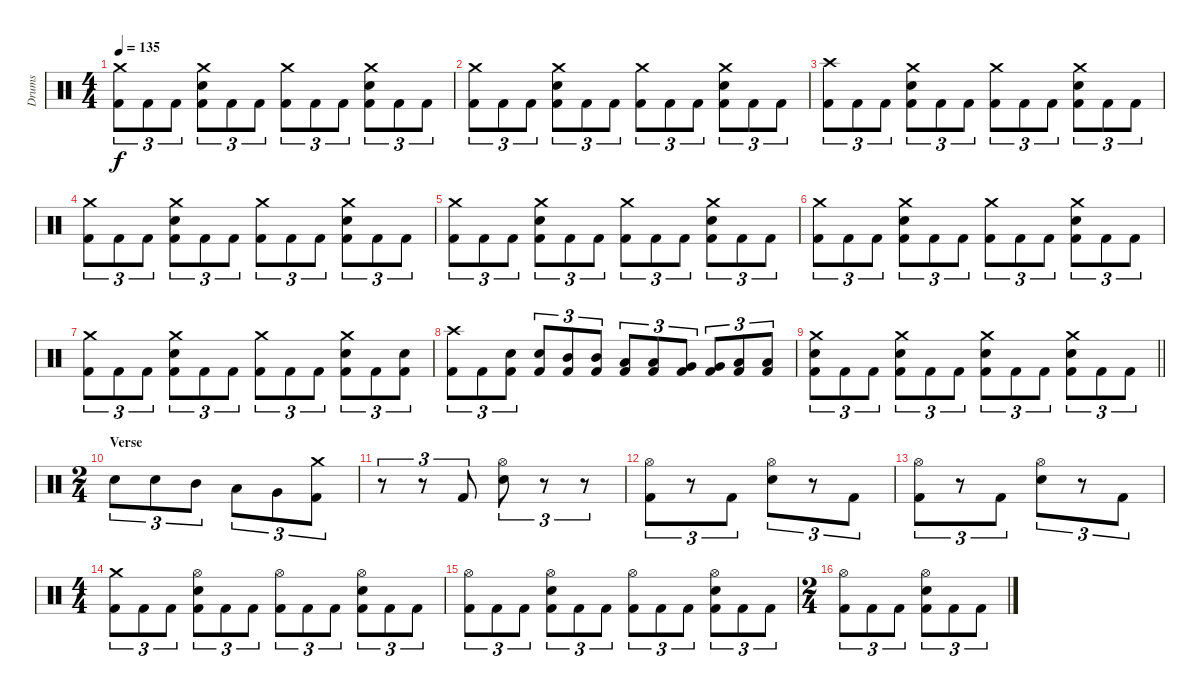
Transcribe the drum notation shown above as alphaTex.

\track ("Drums" "Drums") {instrument percussion}
\staff {score}
\articulation defaults
\ts (4 4)
\tempo 135
\clef neutral
\ks c
("Crash medium (hit)" "Kick (hit) 2").8{tu (3 2) dy f} "Kick (hit) 2".8{tu (3 2)} "Kick (hit) 2".8{tu (3 2)} ("Crash medium (hit)" "Electric Snare (hit)" "Kick (hit) 2").8{tu (3 2)} "Kick (hit) 2".8{tu (3 2)} "Kick (hit) 2".8{tu (3 2)} ("Crash medium (hit)" "Kick (hit) 2").8{tu (3 2)} "Kick (hit) 2".8{tu (3 2)} "Kick (hit) 2".8{tu (3 2)} ("Crash medium (hit)" "Electric Snare (hit)" "Kick (hit) 2").8{tu (3 2)} "Kick (hit) 2".8{tu (3 2)} "Kick (hit) 2".8{tu (3 2)} |
("Crash medium (hit)" "Kick (hit) 2").8{tu (3 2)} "Kick (hit) 2".8{tu (3 2)} "Kick (hit) 2".8{tu (3 2)} ("Crash medium (hit)" "Electric Snare (hit)" "Kick (hit) 2").8{tu (3 2)} "Kick (hit) 2".8{tu (3 2)} "Kick (hit) 2".8{tu (3 2)} ("Crash medium (hit)" "Kick (hit) 2").8{tu (3 2)} "Kick (hit) 2".8{tu (3 2)} "Kick (hit) 2".8{tu (3 2)} ("Crash medium (hit)" "Electric Snare (hit)" "Kick (hit) 2").8{tu (3 2)} "Kick (hit) 2".8{tu (3 2)} "Kick (hit) 2".8{tu (3 2)} |
("Crash high (hit)" "Kick (hit) 2").8{tu (3 2)} "Kick (hit) 2".8{tu (3 2)} "Kick (hit) 2".8{tu (3 2)} ("Crash medium (hit)" "Electric Snare (hit)" "Kick (hit) 2").8{tu (3 2)} "Kick (hit) 2".8{tu (3 2)} "Kick (hit) 2".8{tu (3 2)} ("Crash medium (hit)" "Kick (hit) 2").8{tu (3 2)} "Kick (hit) 2".8{tu (3 2)} "Kick (hit) 2".8{tu (3 2)} ("Crash medium (hit)" "Electric Snare (hit)" "Kick (hit) 2").8{tu (3 2)} "Kick (hit) 2".8{tu (3 2)} "Kick (hit) 2".8{tu (3 2)} |
("Crash medium (hit)" "Kick (hit) 2").8{tu (3 2)} "Kick (hit) 2".8{tu (3 2)} "Kick (hit) 2".8{tu (3 2)} ("Crash medium (hit)" "Electric Snare (hit)" "Kick (hit) 2").8{tu (3 2)} "Kick (hit) 2".8{tu (3 2)} "Kick (hit) 2".8{tu (3 2)} ("Crash medium (hit)" "Kick (hit) 2").8{tu (3 2)} "Kick (hit) 2".8{tu (3 2)} "Kick (hit) 2".8{tu (3 2)} ("Crash medium (hit)" "Electric Snare (hit)" "Kick (hit) 2").8{tu (3 2)} "Kick (hit) 2".8{tu (3 2)} "Kick (hit) 2".8{tu (3 2)} |
("Crash medium (hit)" "Kick (hit) 2").8{tu (3 2)} "Kick (hit) 2".8{tu (3 2)} "Kick (hit) 2".8{tu (3 2)} ("Crash medium (hit)" "Electric Snare (hit)" "Kick (hit) 2").8{tu (3 2)} "Kick (hit) 2".8{tu (3 2)} "Kick (hit) 2".8{tu (3 2)} ("Crash medium (hit)" "Kick (hit) 2").8{tu (3 2)} "Kick (hit) 2".8{tu (3 2)} "Kick (hit) 2".8{tu (3 2)} ("Crash medium (hit)" "Electric Snare (hit)" "Kick (hit) 2").8{tu (3 2)} "Kick (hit) 2".8{tu (3 2)} "Kick (hit) 2".8{tu (3 2)} |
("Crash medium (hit)" "Kick (hit) 2").8{tu (3 2)} "Kick (hit) 2".8{tu (3 2)} "Kick (hit) 2".8{tu (3 2)} ("Crash medium (hit)" "Electric Snare (hit)" "Kick (hit) 2").8{tu (3 2)} "Kick (hit) 2".8{tu (3 2)} "Kick (hit) 2".8{tu (3 2)} ("Crash medium (hit)" "Kick (hit) 2").8{tu (3 2)} "Kick (hit) 2".8{tu (3 2)} "Kick (hit) 2".8{tu (3 2)} ("Crash medium (hit)" "Electric Snare (hit)" "Kick (hit) 2").8{tu (3 2)} "Kick (hit) 2".8{tu (3 2)} "Kick (hit) 2".8{tu (3 2)} |
("Crash medium (hit)" "Kick (hit) 2").8{tu (3 2)} "Kick (hit) 2".8{tu (3 2)} "Kick (hit) 2".8{tu (3 2)} ("Crash medium (hit)" "Electric Snare (hit)" "Kick (hit) 2").8{tu (3 2)} "Kick (hit) 2".8{tu (3 2)} "Kick (hit) 2".8{tu (3 2)} ("Crash medium (hit)" "Kick (hit) 2").8{tu (3 2)} "Kick (hit) 2".8{tu (3 2)} "Kick (hit) 2".8{tu (3 2)} ("Crash medium (hit)" "Electric Snare (hit)" "Kick (hit) 2").8{tu (3 2)} "Kick (hit) 2".8{tu (3 2)} ("Electric Snare (hit)" "Kick (hit) 2").8{tu (3 2)} |
("Crash high (hit)" "Kick (hit) 2").8{tu (3 2)} "Kick (hit) 2".8{tu (3 2)} ("Electric Snare (hit)" "Kick (hit) 2").8{tu (3 2)} ("Electric Snare (hit)" "Kick (hit) 2").8{tu (3 2)} ("Mid Tom (hit)" "Kick (hit) 2").8{tu (3 2)} ("Mid Tom (hit)" "Kick (hit) 2").8{tu (3 2)} ("Low Tom (hit)" "Kick (hit) 2").8{tu (3 2)} ("Low Tom (hit)" "Kick (hit) 2").8{tu (3 2)} ("Very Low Tom (hit)" "Kick (hit) 2").8{tu (3 2)} ("Very Low Tom (hit)" "Kick (hit) 2").8{tu (3 2)} ("Low Floor Tom (hit)" "Kick (hit) 2").8{tu (3 2)} ("Low Floor Tom (hit)" "Kick (hit) 2").8{tu (3 2)} |
\barLineRight lightlight
("Crash medium (hit)" "Electric Snare (hit)" "Kick (hit) 2").8{tu (3 2)} "Kick (hit) 2".8{tu (3 2)} "Kick (hit) 2".8{tu (3 2)} ("Crash medium (hit)" "Electric Snare (hit)" "Kick (hit) 2").8{tu (3 2)} "Kick (hit) 2".8{tu (3 2)} "Kick (hit) 2".8{tu (3 2)} ("Crash medium (hit)" "Electric Snare (hit)" "Kick (hit) 2").8{tu (3 2)} "Kick (hit) 2".8{tu (3 2)} "Kick (hit) 2".8{tu (3 2)} ("Crash medium (hit)" "Electric Snare (hit)" "Kick (hit) 2").8{tu (3 2)} "Kick (hit) 2".8{tu (3 2)} "Kick (hit) 2".8{tu (3 2)} |
\ts (2 4)
\section ("" "Verse")
"Electric Snare (hit)".8{tu (3 2)} "Electric Snare (hit)".8{tu (3 2)} "Mid Tom (hit)".8{tu (3 2)} "Low Tom (hit)".8{tu (3 2)} "Very Low Tom (hit)".8{tu (3 2)} ("Crash medium (hit)" "Kick (hit) 2").8{tu (3 2)} |
r.8{tu (3 2)} r.8{tu (3 2)} "Kick (hit) 2".8{tu (3 2)} ("Hi-Hat (open)" "Electric Snare (hit)").8{tu (3 2)} r.8{tu (3 2)} r.8{tu (3 2)} |
("Hi-Hat (open)" "Kick (hit) 2").8{tu (3 2)} r.8{tu (3 2)} "Kick (hit) 2".8{tu (3 2)} ("Hi-Hat (open)" "Electric Snare (hit)").8{tu (3 2)} r.8{tu (3 2)} "Kick (hit) 2".8{tu (3 2)} |
("Hi-Hat (open)" "Kick (hit) 2").8{tu (3 2)} r.8{tu (3 2)} "Kick (hit) 2".8{tu (3 2)} ("Hi-Hat (open)" "Electric Snare (hit)").8{tu (3 2)} r.8{tu (3 2)} "Kick (hit) 2".8{tu (3 2)} |
\ts (4 4)
("Crash medium (hit)" "Kick (hit) 2").8{tu (3 2)} "Kick (hit) 2".8{tu (3 2)} "Kick (hit) 2".8{tu (3 2)} ("Hi-Hat (open)" "Electric Snare (hit)" "Kick (hit) 2").8{tu (3 2)} "Kick (hit) 2".8{tu (3 2)} "Kick (hit) 2".8{tu (3 2)} ("Hi-Hat (open)" "Kick (hit) 2").8{tu (3 2)} "Kick (hit) 2".8{tu (3 2)} "Kick (hit) 2".8{tu (3 2)} ("Hi-Hat (open)" "Electric Snare (hit)" "Kick (hit) 2").8{tu (3 2)} "Kick (hit) 2".8{tu (3 2)} "Kick (hit) 2".8{tu (3 2)} |
("Hi-Hat (open)" "Kick (hit) 2").8{tu (3 2)} "Kick (hit) 2".8{tu (3 2)} "Kick (hit) 2".8{tu (3 2)} ("Hi-Hat (open)" "Electric Snare (hit)" "Kick (hit) 2").8{tu (3 2)} "Kick (hit) 2".8{tu (3 2)} "Kick (hit) 2".8{tu (3 2)} ("Hi-Hat (open)" "Kick (hit) 2").8{tu (3 2)} "Kick (hit) 2".8{tu (3 2)} "Kick (hit) 2".8{tu (3 2)} ("Hi-Hat (open)" "Electric Snare (hit)" "Kick (hit) 2").8{tu (3 2)} "Kick (hit) 2".8{tu (3 2)} "Kick (hit) 2".8{tu (3 2)} |
\ts (2 4)
("Hi-Hat (open)" "Kick (hit) 2").8{tu (3 2)} "Kick (hit) 2".8{tu (3 2)} "Kick (hit) 2".8{tu (3 2)} ("Hi-Hat (open)" "Electric Snare (hit)" "Kick (hit) 2").8{tu (3 2)} "Kick (hit) 2".8{tu (3 2)} "Kick (hit) 2".8{tu (3 2)}
